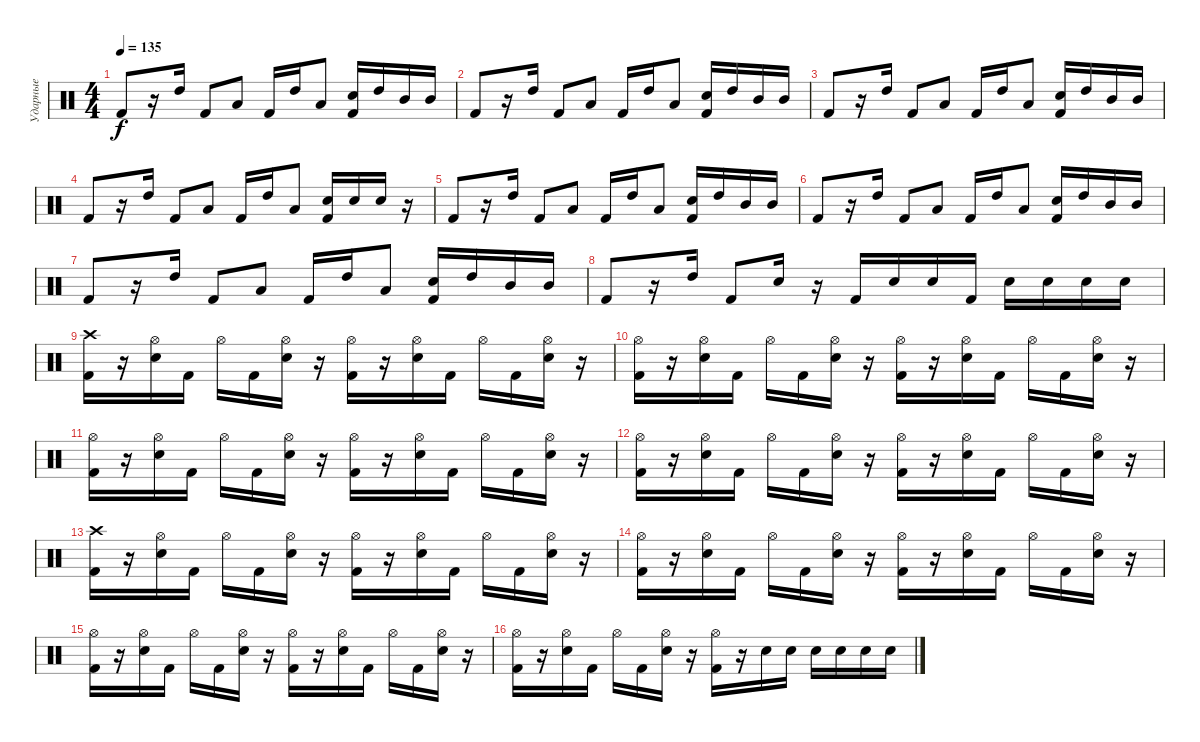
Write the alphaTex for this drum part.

\track ("Ударные" "Ударные") {instrument percussion}
\staff {score}
\articulation defaults
\ts (4 4)
\tempo 135
\clef neutral
\ks c "Kick (hit) 2".8{dy f}
r.16 "High Tom (hit)".16 "Kick (hit) 2".8 "Low Tom (hit)".8 "Kick (hit) 2".16 "High Tom (hit)".16 "Low Tom (hit)".8 ("Kick (hit) 2" "Electric Snare (hit)").16 "High Tom (hit)".16 "Mid Tom (hit)".16 "Mid Tom (hit)".16 |
"Kick (hit) 2".8 r.16 "High Tom (hit)".16 "Kick (hit) 2".8 "Low Tom (hit)".8 "Kick (hit) 2".16 "High Tom (hit)".16 "Low Tom (hit)".8 ("Kick (hit) 2" "Electric Snare (hit)").16 "High Tom (hit)".16 "Mid Tom (hit)".16 "Mid Tom (hit)".16 |
"Kick (hit) 2".8 r.16 "High Tom (hit)".16 "Kick (hit) 2".8 "Low Tom (hit)".8 "Kick (hit) 2".16 "High Tom (hit)".16 "Low Tom (hit)".8 ("Kick (hit) 2" "Electric Snare (hit)").16 "High Tom (hit)".16 "Mid Tom (hit)".16 "Mid Tom (hit)".16 |
"Kick (hit) 2".8 r.16 "High Tom (hit)".16 "Kick (hit) 2".8 "Low Tom (hit)".8 "Kick (hit) 2".16 "High Tom (hit)".16 "Low Tom (hit)".8 ("Electric Snare (hit)" "Kick (hit) 2").16 "Electric Snare (hit)".16 "Electric Snare (hit)".16 r.16 |
"Kick (hit) 2".8 r.16 "High Tom (hit)".16 "Kick (hit) 2".8 "Low Tom (hit)".8 "Kick (hit) 2".16 "High Tom (hit)".16 "Low Tom (hit)".8 ("Kick (hit) 2" "Electric Snare (hit)").16 "High Tom (hit)".16 "Mid Tom (hit)".16 "Mid Tom (hit)".16 |
"Kick (hit) 2".8 r.16 "High Tom (hit)".16 "Kick (hit) 2".8 "Low Tom (hit)".8 "Kick (hit) 2".16 "High Tom (hit)".16 "Low Tom (hit)".8 ("Kick (hit) 2" "Electric Snare (hit)").16 "High Tom (hit)".16 "Mid Tom (hit)".16 "Mid Tom (hit)".16 |
"Kick (hit) 2".8 r.16 "High Tom (hit)".16 "Kick (hit) 2".8 "Low Tom (hit)".8 "Kick (hit) 2".16 "High Tom (hit)".16 "Low Tom (hit)".8 ("Kick (hit) 2" "Electric Snare (hit)").16 "High Tom (hit)".16 "Mid Tom (hit)".16 "Mid Tom (hit)".16 |
"Kick (hit) 2".8 r.16 "High Tom (hit)".16 "Kick (hit) 2".8 "Electric Snare (hit)".16 r.16 "Kick (hit) 2".16 "Electric Snare (hit)".16 "Electric Snare (hit)".16 "Kick (hit) 2".16 "Electric Snare (hit)".16 "Electric Snare (hit)".16 "Electric Snare (hit)".16 "Electric Snare (hit)".16 |
("Crash high (hit)" "Kick (hit) 2").16 r.16 ("Hi-Hat (open)" "Electric Snare (hit)").16 "Kick (hit) 2".16 "Hi-Hat (open)".16 "Kick (hit) 2".16 ("Hi-Hat (open)" "Electric Snare (hit)").16 r.16 ("Hi-Hat (open)" "Kick (hit) 2").16 r.16 ("Hi-Hat (open)" "Electric Snare (hit)").16 "Kick (hit) 2".16 "Hi-Hat (open)".16 "Kick (hit) 2".16 ("Hi-Hat (open)" "Electric Snare (hit)").16 r.16 |
("Hi-Hat (open)" "Kick (hit) 2").16 r.16 ("Hi-Hat (open)" "Electric Snare (hit)").16 "Kick (hit) 2".16 "Hi-Hat (open)".16 "Kick (hit) 2".16 ("Hi-Hat (open)" "Electric Snare (hit)").16 r.16 ("Hi-Hat (open)" "Kick (hit) 2").16 r.16 ("Hi-Hat (open)" "Electric Snare (hit)").16 "Kick (hit) 2".16 "Hi-Hat (open)".16 "Kick (hit) 2".16 ("Hi-Hat (open)" "Electric Snare (hit)").16 r.16 |
("Hi-Hat (open)" "Kick (hit) 2").16 r.16 ("Hi-Hat (open)" "Electric Snare (hit)").16 "Kick (hit) 2".16 "Hi-Hat (open)".16 "Kick (hit) 2".16 ("Hi-Hat (open)" "Electric Snare (hit)").16 r.16 ("Hi-Hat (open)" "Kick (hit) 2").16 r.16 ("Hi-Hat (open)" "Electric Snare (hit)").16 "Kick (hit) 2".16 "Hi-Hat (open)".16 "Kick (hit) 2".16 ("Hi-Hat (open)" "Electric Snare (hit)").16 r.16 |
("Hi-Hat (open)" "Kick (hit) 2").16 r.16 ("Hi-Hat (open)" "Electric Snare (hit)").16 "Kick (hit) 2".16 "Hi-Hat (open)".16 "Kick (hit) 2".16 ("Hi-Hat (open)" "Electric Snare (hit)").16 r.16 ("Hi-Hat (open)" "Kick (hit) 2").16 r.16 ("Hi-Hat (open)" "Electric Snare (hit)").16 "Kick (hit) 2".16 "Hi-Hat (open)".16 "Kick (hit) 2".16 ("Hi-Hat (open)" "Electric Snare (hit)").16 r.16 |
("Crash high (hit)" "Kick (hit) 2").16 r.16 ("Hi-Hat (open)" "Electric Snare (hit)").16 "Kick (hit) 2".16 "Hi-Hat (open)".16 "Kick (hit) 2".16 ("Hi-Hat (open)" "Electric Snare (hit)").16 r.16 ("Hi-Hat (open)" "Kick (hit) 2").16 r.16 ("Hi-Hat (open)" "Electric Snare (hit)").16 "Kick (hit) 2".16 "Hi-Hat (open)".16 "Kick (hit) 2".16 ("Hi-Hat (open)" "Electric Snare (hit)").16 r.16 |
("Hi-Hat (open)" "Kick (hit) 2").16 r.16 ("Hi-Hat (open)" "Electric Snare (hit)").16 "Kick (hit) 2".16 "Hi-Hat (open)".16 "Kick (hit) 2".16 ("Hi-Hat (open)" "Electric Snare (hit)").16 r.16 ("Hi-Hat (open)" "Kick (hit) 2").16 r.16 ("Hi-Hat (open)" "Electric Snare (hit)").16 "Kick (hit) 2".16 "Hi-Hat (open)".16 "Kick (hit) 2".16 ("Hi-Hat (open)" "Electric Snare (hit)").16 r.16 |
("Hi-Hat (open)" "Kick (hit) 2").16 r.16 ("Hi-Hat (open)" "Electric Snare (hit)").16 "Kick (hit) 2".16 "Hi-Hat (open)".16 "Kick (hit) 2".16 ("Hi-Hat (open)" "Electric Snare (hit)").16 r.16 ("Hi-Hat (open)" "Kick (hit) 2").16 r.16 ("Hi-Hat (open)" "Electric Snare (hit)").16 "Kick (hit) 2".16 "Hi-Hat (open)".16 "Kick (hit) 2".16 ("Hi-Hat (open)" "Electric Snare (hit)").16 r.16 |
("Hi-Hat (open)" "Kick (hit) 2").16 r.16 ("Hi-Hat (open)" "Electric Snare (hit)").16 "Kick (hit) 2".16 "Hi-Hat (open)".16 "Kick (hit) 2".16 ("Hi-Hat (open)" "Electric Snare (hit)").16 r.16 ("Hi-Hat (open)" "Kick (hit) 2").16 r.16 "Electric Snare (hit)".16 "Electric Snare (hit)".16 "Electric Snare (hit)".16 "Electric Snare (hit)".16 "Electric Snare (hit)".16 "Electric Snare (hit)".16
